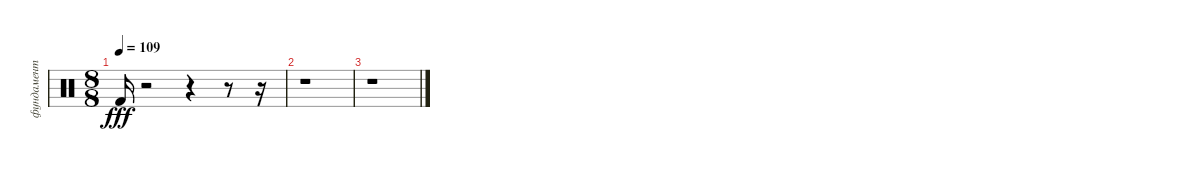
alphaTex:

\track ("фундамент" "фундамент") {instrument percussion}
\staff {score}
\articulation defaults
\ts (8 8)
\tempo 109
\clef neutral
\ks c "Kick (hit) 2".16{dy fff}
r.2 r.4 r.8 r.16 |
r.1 |
r.1
